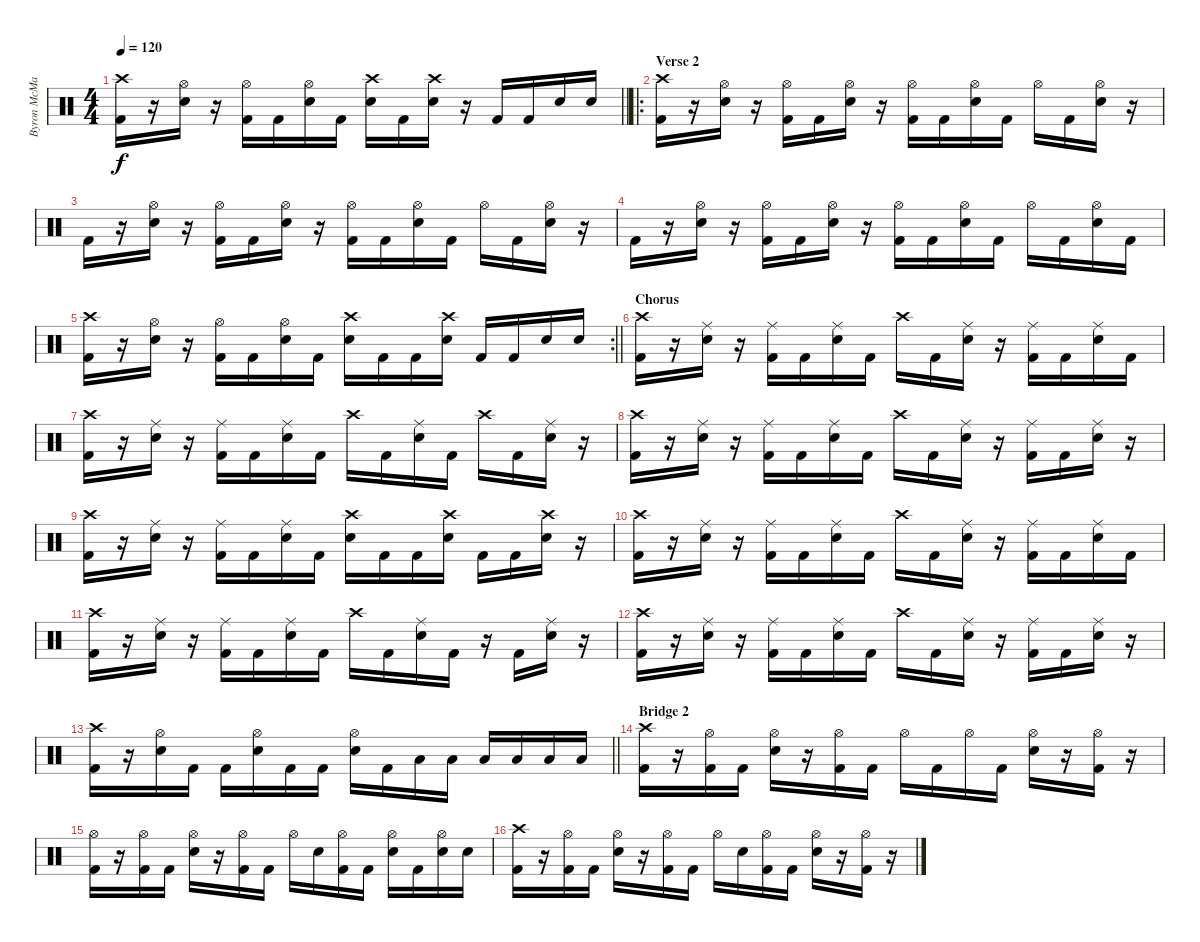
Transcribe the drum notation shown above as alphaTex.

\track ("Byron McMackin" "Byron McMa") {instrument percussion}
\staff {score}
\articulation defaults
\ts (4 4)
\tempo 120
\clef neutral
\barLineRight lightlight
\ks c
("Crash high (hit)" "Kick (hit) 2").16{dy f} r.16 ("Hi-Hat (open)" "Snare (hit) 2").16 r.16 ("Hi-Hat (open)" "Kick (hit) 2").16 "Kick (hit) 2".16 ("Hi-Hat (open)" "Snare (hit) 2").16 "Kick (hit) 2".16 ("Crash high (hit)" "Snare (hit) 2").16 "Kick (hit) 2".16 ("Crash high (hit)" "Snare (hit) 2").16 r.16 "Kick (hit) 2".16 "Kick (hit) 2".16 "Snare (hit) 2".16 "Snare (hit) 2".16 |
\ro
\section ("" "Verse 2")
("Crash high (hit)" "Kick (hit) 2").16 r.16 ("Hi-Hat (open)" "Snare (hit) 2").16 r.16 ("Hi-Hat (open)" "Kick (hit) 2").16 "Kick (hit) 2".16 ("Hi-Hat (open)" "Snare (hit) 2").16 r.16 ("Hi-Hat (open)" "Kick (hit) 2").16 "Kick (hit) 2".16 ("Hi-Hat (open)" "Snare (hit) 2").16 "Kick (hit) 2".16 "Hi-Hat (open)".16 "Kick (hit) 2".16 ("Hi-Hat (open)" "Snare (hit) 2").16 r.16 |
"Kick (hit) 2".16 r.16 ("Hi-Hat (open)" "Snare (hit) 2").16 r.16 ("Hi-Hat (open)" "Kick (hit) 2").16 "Kick (hit) 2".16 ("Hi-Hat (open)" "Snare (hit) 2").16 r.16 ("Hi-Hat (open)" "Kick (hit) 2").16 "Kick (hit) 2".16 ("Hi-Hat (open)" "Snare (hit) 2").16 "Kick (hit) 2".16 "Hi-Hat (open)".16 "Kick (hit) 2".16 ("Hi-Hat (open)" "Snare (hit) 2").16 r.16 |
"Kick (hit) 2".16 r.16 ("Hi-Hat (open)" "Snare (hit) 2").16 r.16 ("Hi-Hat (open)" "Kick (hit) 2").16 "Kick (hit) 2".16 ("Hi-Hat (open)" "Snare (hit) 2").16 r.16 ("Hi-Hat (open)" "Kick (hit) 2").16 "Kick (hit) 2".16 ("Hi-Hat (open)" "Snare (hit) 2").16 "Kick (hit) 2".16 "Hi-Hat (open)".16 "Kick (hit) 2".16 ("Hi-Hat (open)" "Snare (hit) 2").16 "Kick (hit) 2".16 |
\rc 2
\barLineRight lightlight
("Crash high (hit)" "Kick (hit) 2").16 r.16 ("Hi-Hat (open)" "Snare (hit) 2").16 r.16 ("Hi-Hat (open)" "Kick (hit) 2").16 "Kick (hit) 2".16 ("Hi-Hat (open)" "Snare (hit) 2").16 "Kick (hit) 2".16 ("Crash high (hit)" "Snare (hit) 2").16 "Kick (hit) 2".16 "Kick (hit) 2".16 ("Crash high (hit)" "Snare (hit) 2").16 "Kick (hit) 2".16 "Kick (hit) 2".16 "Snare (hit) 2".16 "Snare (hit) 2".16 |
\section ("" "Chorus")
("Crash high (hit)" "Kick (hit) 2").16 r.16 ("Ride (middle)" "Snare (hit) 2").16 r.16 ("Ride (middle)" "Kick (hit) 2").16 "Kick (hit) 2".16 ("Ride (middle)" "Snare (hit) 2").16 "Kick (hit) 2".16 "Crash high (hit)".16 "Kick (hit) 2".16 ("Ride (middle)" "Snare (hit) 2").16 r.16 ("Ride (middle)" "Kick (hit) 2").16 "Kick (hit) 2".16 ("Ride (middle)" "Snare (hit) 2").16 "Kick (hit) 2".16 |
("Crash high (hit)" "Kick (hit) 2").16 r.16 ("Ride (middle)" "Snare (hit) 2").16 r.16 ("Ride (middle)" "Kick (hit) 2").16 "Kick (hit) 2".16 ("Ride (middle)" "Snare (hit) 2").16 "Kick (hit) 2".16 "Crash high (hit)".16 "Kick (hit) 2".16 ("Ride (middle)" "Snare (hit) 2").16 "Kick (hit) 2".16 "Crash high (hit)".16 "Kick (hit) 2".16 ("Ride (middle)" "Snare (hit) 2").16 r.16 |
("Crash high (hit)" "Kick (hit) 2").16 r.16 ("Ride (middle)" "Snare (hit) 2").16 r.16 ("Ride (middle)" "Kick (hit) 2").16 "Kick (hit) 2".16 ("Ride (middle)" "Snare (hit) 2").16 "Kick (hit) 2".16 "Crash high (hit)".16 "Kick (hit) 2".16 ("Ride (middle)" "Snare (hit) 2").16 r.16 ("Ride (middle)" "Kick (hit) 2").16 "Kick (hit) 2".16 ("Ride (middle)" "Snare (hit) 2").16 r.16 |
("Crash high (hit)" "Kick (hit) 2").16 r.16 ("Ride (middle)" "Snare (hit) 2").16 r.16 ("Ride (middle)" "Kick (hit) 2").16 "Kick (hit) 2".16 ("Ride (middle)" "Snare (hit) 2").16 "Kick (hit) 2".16 ("Crash high (hit)" "Snare (hit) 2").16 "Kick (hit) 2".16 "Kick (hit) 2".16 ("Crash high (hit)" "Snare (hit) 2").16 "Kick (hit) 2".16 "Kick (hit) 2".16 ("Crash high (hit)" "Snare (hit) 2").16 r.16 |
("Crash high (hit)" "Kick (hit) 2").16 r.16 ("Ride (middle)" "Snare (hit) 2").16 r.16 ("Ride (middle)" "Kick (hit) 2").16 "Kick (hit) 2".16 ("Ride (middle)" "Snare (hit) 2").16 "Kick (hit) 2".16 "Crash high (hit)".16 "Kick (hit) 2".16 ("Ride (middle)" "Snare (hit) 2").16 r.16 ("Ride (middle)" "Kick (hit) 2").16 "Kick (hit) 2".16 ("Ride (middle)" "Snare (hit) 2").16 "Kick (hit) 2".16 |
("Crash high (hit)" "Kick (hit) 2").16 r.16 ("Ride (middle)" "Snare (hit) 2").16 r.16 ("Ride (middle)" "Kick (hit) 2").16 "Kick (hit) 2".16 ("Ride (middle)" "Snare (hit) 2").16 "Kick (hit) 2".16 "Crash high (hit)".16 "Kick (hit) 2".16 ("Ride (middle)" "Snare (hit) 2").16 "Kick (hit) 2".16 r.16 "Kick (hit) 2".16 ("Ride (middle)" "Snare (hit) 2").16 r.16 |
("Crash high (hit)" "Kick (hit) 2").16 r.16 ("Ride (middle)" "Snare (hit) 2").16 r.16 ("Ride (middle)" "Kick (hit) 2").16 "Kick (hit) 2".16 ("Ride (middle)" "Snare (hit) 2").16 "Kick (hit) 2".16 "Crash high (hit)".16 "Kick (hit) 2".16 ("Ride (middle)" "Snare (hit) 2").16 r.16 ("Ride (middle)" "Kick (hit) 2").16 "Kick (hit) 2".16 ("Ride (middle)" "Snare (hit) 2").16 r.16 |
\barLineRight lightlight
("Crash high (hit)" "Kick (hit) 2").16 r.16 ("Hi-Hat (open)" "Snare (hit) 2").16 "Kick (hit) 2".16 "Kick (hit) 2".16 ("Hi-Hat (open)" "Snare (hit) 2").16 "Kick (hit) 2".16 "Kick (hit) 2".16 ("Hi-Hat (open)" "Snare (hit) 2").16 "Kick (hit) 2".16 "Low Floor Tom (hit)".16 "Low Floor Tom (hit)".16 "Low Floor Tom (hit)".16 "Low Floor Tom (hit)".16 "Low Floor Tom (hit)".16 "Low Floor Tom (hit)".16 |
\section ("" "Bridge 2")
("Crash high (hit)" "Kick (hit) 2").16 r.16 ("Hi-Hat (open)" "Kick (hit) 2").16 "Kick (hit) 2".16 ("Hi-Hat (open)" "Snare (hit) 2").16 r.16 ("Hi-Hat (open)" "Kick (hit) 2").16 "Kick (hit) 2".16 "Hi-Hat (open)".16 "Kick (hit) 2".16 "Hi-Hat (open)".16 "Kick (hit) 2".16 ("Hi-Hat (open)" "Snare (hit) 2").16 r.16 ("Hi-Hat (open)" "Kick (hit) 2").16 r.16 |
("Hi-Hat (open)" "Kick (hit) 2").16 r.16 ("Hi-Hat (open)" "Kick (hit) 2").16 "Kick (hit) 2".16 ("Hi-Hat (open)" "Snare (hit) 2").16 r.16 ("Hi-Hat (open)" "Kick (hit) 2").16 "Kick (hit) 2".16 "Hi-Hat (open)".16 "Snare (hit) 2".16 ("Hi-Hat (open)" "Kick (hit) 2").16 "Kick (hit) 2".16 ("Hi-Hat (open)" "Snare (hit) 2").16 "Kick (hit) 2".16 ("Hi-Hat (open)" "Snare (hit) 2").16 "Snare (hit) 2".16 |
("Crash high (hit)" "Kick (hit) 2").16 r.16 ("Hi-Hat (open)" "Kick (hit) 2").16 "Kick (hit) 2".16 ("Hi-Hat (open)" "Snare (hit) 2").16 r.16 ("Hi-Hat (open)" "Kick (hit) 2").16 "Kick (hit) 2".16 "Hi-Hat (open)".16 "Snare (hit) 2".16 ("Hi-Hat (open)" "Kick (hit) 2").16 "Kick (hit) 2".16 ("Hi-Hat (open)" "Snare (hit) 2").16 r.16 ("Hi-Hat (open)" "Kick (hit) 2").16 r.16
